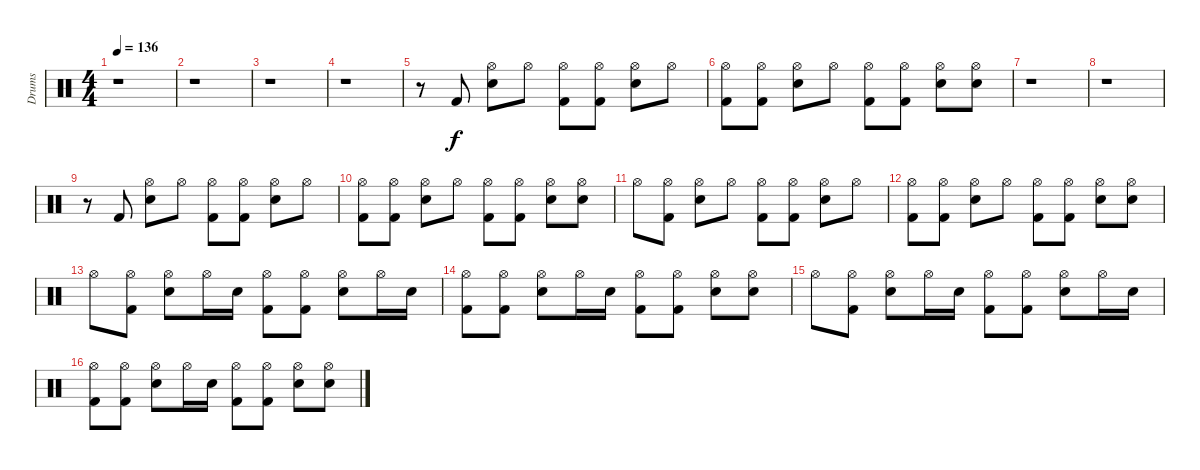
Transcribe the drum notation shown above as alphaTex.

\track ("Drums" "Drums") {instrument percussion}
\staff {score}
\articulation defaults
\ts (4 4)
\tempo 136
\clef neutral
\ks c
r.1{dy f} |
r.1 |
r.1 |
r.1 |
r.8 "Kick (hit) 2".8 ("Hi-Hat (open)" "Snare (hit) 2").8 "Hi-Hat (open)".8 ("Hi-Hat (open)" "Kick (hit) 2").8 ("Hi-Hat (open)" "Kick (hit) 2").8 ("Hi-Hat (open)" "Snare (hit) 2").8 "Hi-Hat (open)".8 |
("Hi-Hat (open)" "Kick (hit) 2").8 ("Hi-Hat (open)" "Kick (hit) 2").8 ("Hi-Hat (open)" "Snare (hit) 2").8 "Hi-Hat (open)".8 ("Hi-Hat (open)" "Kick (hit) 2").8 ("Hi-Hat (open)" "Kick (hit) 2").8 ("Hi-Hat (open)" "Snare (hit) 2").8 ("Hi-Hat (open)" "Snare (hit) 2").8 |
r.1 |
r.1 |
r.8 "Kick (hit) 2".8 ("Hi-Hat (open)" "Snare (hit) 2").8 "Hi-Hat (open)".8 ("Hi-Hat (open)" "Kick (hit) 2").8 ("Hi-Hat (open)" "Kick (hit) 2").8 ("Hi-Hat (open)" "Snare (hit) 2").8 "Hi-Hat (open)".8 |
("Hi-Hat (open)" "Kick (hit) 2").8 ("Hi-Hat (open)" "Kick (hit) 2").8 ("Hi-Hat (open)" "Snare (hit) 2").8 "Hi-Hat (open)".8 ("Hi-Hat (open)" "Kick (hit) 2").8 ("Hi-Hat (open)" "Kick (hit) 2").8 ("Hi-Hat (open)" "Snare (hit) 2").8 ("Hi-Hat (open)" "Snare (hit) 2").8 |
"Hi-Hat (open)".8 ("Hi-Hat (open)" "Kick (hit) 2").8 ("Hi-Hat (open)" "Snare (hit) 2").8 "Hi-Hat (open)".8 ("Hi-Hat (open)" "Kick (hit) 2").8 ("Hi-Hat (open)" "Kick (hit) 2").8 ("Hi-Hat (open)" "Snare (hit) 2").8 "Hi-Hat (open)".8 |
("Hi-Hat (open)" "Kick (hit) 2").8 ("Hi-Hat (open)" "Kick (hit) 2").8 ("Hi-Hat (open)" "Snare (hit) 2").8 "Hi-Hat (open)".8 ("Hi-Hat (open)" "Kick (hit) 2").8 ("Hi-Hat (open)" "Kick (hit) 2").8 ("Hi-Hat (open)" "Snare (hit) 2").8 ("Hi-Hat (open)" "Snare (hit) 2").8 |
"Hi-Hat (open)".8 ("Hi-Hat (open)" "Kick (hit) 2").8 ("Hi-Hat (open)" "Snare (hit) 2").8 "Hi-Hat (open)".16 "Snare (hit) 2".16 ("Hi-Hat (open)" "Kick (hit) 2").8 ("Hi-Hat (open)" "Kick (hit) 2").8 ("Hi-Hat (open)" "Snare (hit) 2").8 "Hi-Hat (open)".16 "Snare (hit) 2".16 |
("Hi-Hat (open)" "Kick (hit) 2").8 ("Hi-Hat (open)" "Kick (hit) 2").8 ("Hi-Hat (open)" "Snare (hit) 2").8 "Hi-Hat (open)".16 "Snare (hit) 2".16 ("Hi-Hat (open)" "Kick (hit) 2").8 ("Hi-Hat (open)" "Kick (hit) 2").8 ("Hi-Hat (open)" "Snare (hit) 2").8 ("Hi-Hat (open)" "Snare (hit) 2").8 |
"Hi-Hat (open)".8 ("Hi-Hat (open)" "Kick (hit) 2").8 ("Hi-Hat (open)" "Snare (hit) 2").8 "Hi-Hat (open)".16 "Snare (hit) 2".16 ("Hi-Hat (open)" "Kick (hit) 2").8 ("Hi-Hat (open)" "Kick (hit) 2").8 ("Hi-Hat (open)" "Snare (hit) 2").8 "Hi-Hat (open)".16 "Snare (hit) 2".16 |
("Hi-Hat (open)" "Kick (hit) 2").8 ("Hi-Hat (open)" "Kick (hit) 2").8 ("Hi-Hat (open)" "Snare (hit) 2").8 "Hi-Hat (open)".16 "Snare (hit) 2".16 ("Hi-Hat (open)" "Kick (hit) 2").8 ("Hi-Hat (open)" "Kick (hit) 2").8 ("Hi-Hat (open)" "Snare (hit) 2").8 ("Hi-Hat (open)" "Snare (hit) 2").8
